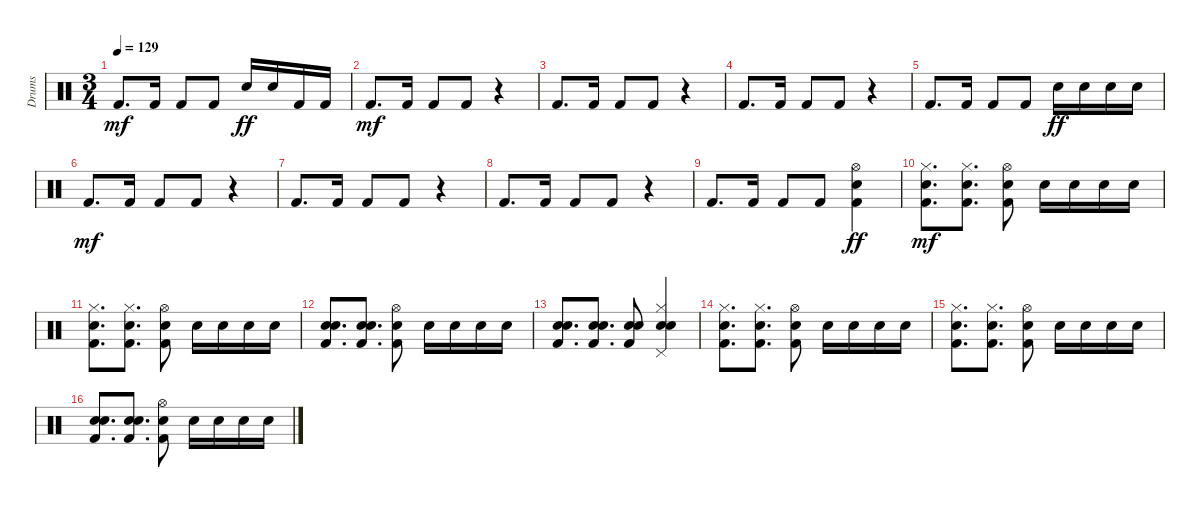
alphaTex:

\track ("Drums" "Drums") {instrument percussion}
\staff {score}
\articulation defaults
\ts (3 4)
\tempo 129
\clef neutral
\ks c "Kick (hit) 2".8{d dy mf} "Kick (hit) 2".16 "Kick (hit) 2".8 "Kick (hit) 2".8 "Snare (hit) 2".16{dy ff} "Snare (hit) 2".16 "Kick (hit) 2".16 "Kick (hit) 2".16
|
"Kick (hit) 2".8{d dy mf} "Kick (hit) 2".16 "Kick (hit) 2".8 "Kick (hit) 2".8 r.4 |
"Kick (hit) 2".8{d} "Kick (hit) 2".16 "Kick (hit) 2".8 "Kick (hit) 2".8 r.4 |
"Kick (hit) 2".8{d} "Kick (hit) 2".16 "Kick (hit) 2".8 "Kick (hit) 2".8 r.4 |
"Kick (hit) 2".8{d} "Kick (hit) 2".16 "Kick (hit) 2".8 "Kick (hit) 2".8 "Snare (hit) 2".16{dy ff} "Snare (hit) 2".16 "Snare (hit) 2".16 "Snare (hit) 2".16 |
"Kick (hit) 2".8{d dy mf} "Kick (hit) 2".16 "Kick (hit) 2".8 "Kick (hit) 2".8 r.4 |
"Kick (hit) 2".8{d} "Kick (hit) 2".16 "Kick (hit) 2".8 "Kick (hit) 2".8 r.4 |
"Kick (hit) 2".8{d} "Kick (hit) 2".16 "Kick (hit) 2".8 "Kick (hit) 2".8 r.4 |
"Kick (hit) 2".8{d} "Kick (hit) 2".16 "Kick (hit) 2".8 "Kick (hit) 2".8 ("Hi-Hat (open)" "Kick (hit) 2" "Snare (hit) 2").4{dy ff} |
("Kick (hit) 2" "Snare (hit) 2" "Hi-Hat (closed)").8{d dy mf} ("Kick (hit) 2" "Snare (hit) 2" "Hi-Hat (closed)").8{d} ("Kick (hit) 2" "Snare (hit) 2" "Hi-Hat (open)").8 "Snare (hit) 2".16 "Snare (hit) 2".16 "Snare (hit) 2".16 "Snare (hit) 2".16 |
("Kick (hit) 2" "Snare (hit) 2" "Hi-Hat (closed)").8{d} ("Kick (hit) 2" "Snare (hit) 2" "Hi-Hat (closed)").8{d} ("Kick (hit) 2" "Snare (hit) 2" "Hi-Hat (open)").8 "Snare (hit) 2".16 "Snare (hit) 2".16 "Snare (hit) 2".16 "Snare (hit) 2".16 |
("Kick (hit) 2" "Snare (hit) 2" "Electric Snare (hit)").8{d} ("Kick (hit) 2" "Snare (hit) 2" "Electric Snare (hit)").8{d} ("Kick (hit) 2" "Snare (hit) 2" "Hi-Hat (open)").8 "Snare (hit) 2".16 "Snare (hit) 2".16 "Snare (hit) 2".16 "Snare (hit) 2".16 |
("Kick (hit) 2" "Snare (hit) 2" "Electric Snare (hit)").8{d} ("Kick (hit) 2" "Snare (hit) 2" "Electric Snare (hit)").8{d} ("Kick (hit) 2" "Snare (hit) 2" "Electric Snare (hit)").8 ("Electric Snare (hit)" "Snare (hit) 2" "Hi-Hat (closed)" "Pedal Hi-Hat (hit)").4 |
("Kick (hit) 2" "Snare (hit) 2" "Hi-Hat (closed)").8{d} ("Kick (hit) 2" "Snare (hit) 2" "Hi-Hat (closed)").8{d} ("Kick (hit) 2" "Snare (hit) 2" "Hi-Hat (open)").8 "Snare (hit) 2".16 "Snare (hit) 2".16 "Snare (hit) 2".16 "Snare (hit) 2".16 |
("Kick (hit) 2" "Snare (hit) 2" "Hi-Hat (closed)").8{d} ("Kick (hit) 2" "Snare (hit) 2" "Hi-Hat (closed)").8{d} ("Kick (hit) 2" "Snare (hit) 2" "Hi-Hat (open)").8 "Snare (hit) 2".16 "Snare (hit) 2".16 "Snare (hit) 2".16 "Snare (hit) 2".16 |
("Kick (hit) 2" "Snare (hit) 2" "Electric Snare (hit)").8{d} ("Kick (hit) 2" "Snare (hit) 2" "Electric Snare (hit)").8{d} ("Kick (hit) 2" "Snare (hit) 2" "Hi-Hat (open)").8 "Snare (hit) 2".16 "Snare (hit) 2".16 "Snare (hit) 2".16 "Snare (hit) 2".16
